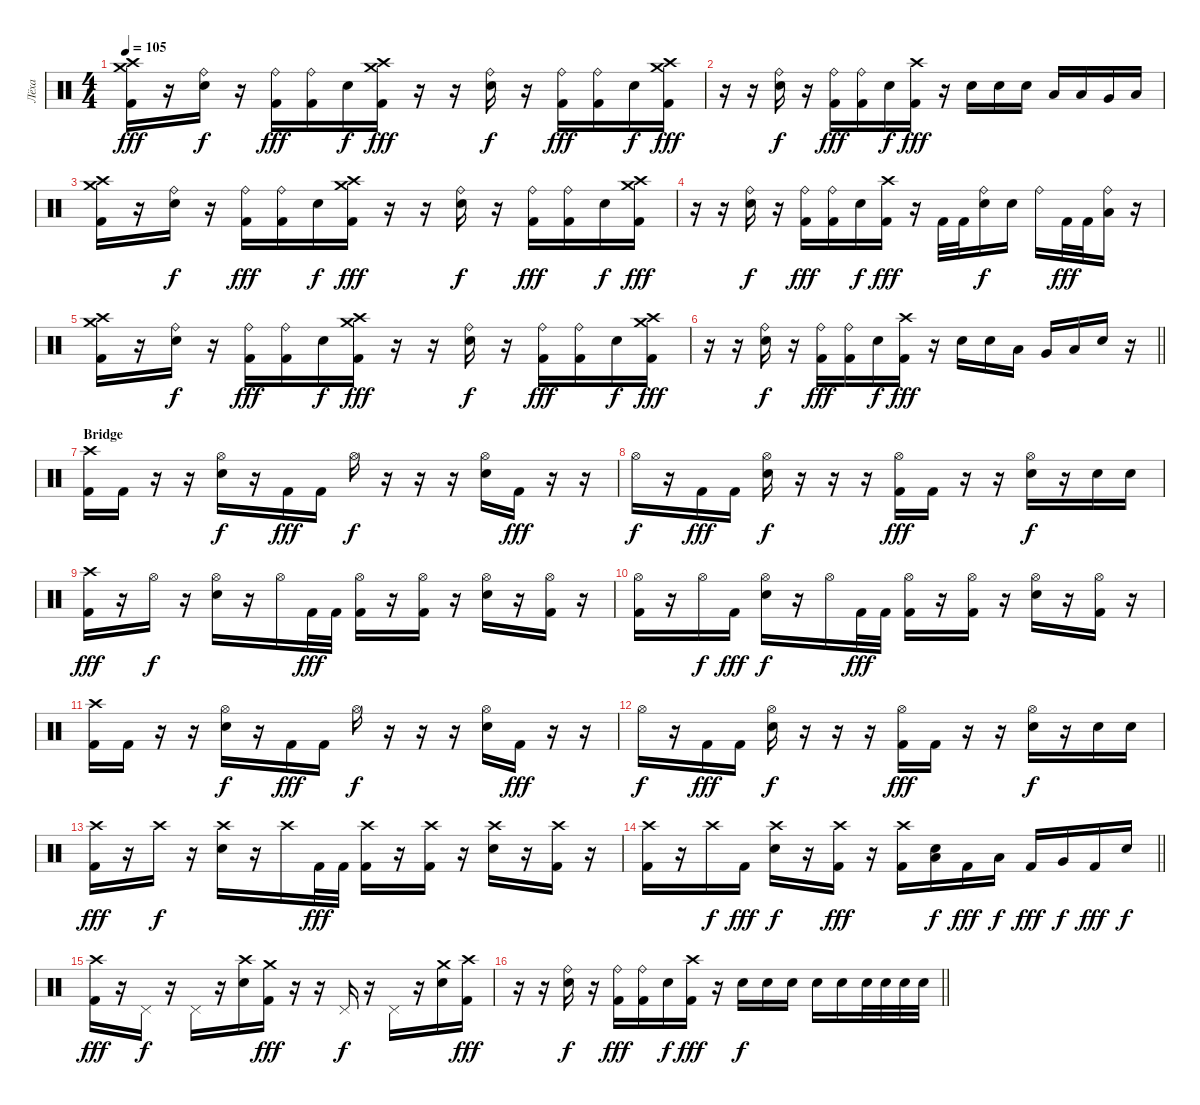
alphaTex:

\track ("Лёха" "Лёха") {solo instrument percussion}
\staff {score}
\articulation defaults
\ts (4 4)
\tempo 105
\clef neutral
\ks c
("Crash high (hit)" "Crash medium (hit)" "Kick (hit) 2").16{dy fff} r.16 ("Ride (bell)" "Electric Snare (hit)").16{dy f} r.16 ("Ride (bell)" "Kick (hit) 2").16{dy fff} ("Ride (bell)" "Kick (hit) 2").16 "Electric Snare (hit)".16{dy f} ("Crash high (hit)" "Crash medium (hit)" "Kick (hit) 2").16{dy fff} r.16 r.16 ("Ride (bell)" "Electric Snare (hit)").16{dy f} r.16 ("Ride (bell)" "Kick (hit) 2").16{dy fff} ("Ride (bell)" "Kick (hit) 2").16 "Electric Snare (hit)".16{dy f} ("Crash high (hit)" "Crash medium (hit)" "Kick (hit) 2").16{dy fff} |
r.16 r.16 ("Ride (bell)" "Electric Snare (hit)").16{dy f} r.16 ("Ride (bell)" "Kick (hit) 2").16{dy fff} ("Ride (bell)" "Kick (hit) 2").16 "Electric Snare (hit)".16{dy f} ("Crash high (hit)" "Kick (hit) 2").16{dy fff} r.16 "Electric Snare (hit)".16 "Electric Snare (hit)".16 "Electric Snare (hit)".16 "Low Tom (hit)".16 "Low Tom (hit)".16 "Very Low Tom (hit)".16 "Low Floor Tom (hit)".16 |
("Crash high (hit)" "Crash medium (hit)" "Kick (hit) 2").16 r.16 ("Ride (bell)" "Electric Snare (hit)").16{dy f} r.16 ("Ride (bell)" "Kick (hit) 2").16{dy fff} ("Ride (bell)" "Kick (hit) 2").16 "Electric Snare (hit)".16{dy f} ("Crash high (hit)" "Crash medium (hit)" "Kick (hit) 2").16{dy fff} r.16 r.16 ("Ride (bell)" "Electric Snare (hit)").16{dy f} r.16 ("Ride (bell)" "Kick (hit) 2").16{dy fff} ("Ride (bell)" "Kick (hit) 2").16 "Electric Snare (hit)".16{dy f} ("Crash high (hit)" "Crash medium (hit)" "Kick (hit) 2").16{dy fff} |
r.16 r.16 ("Ride (bell)" "Electric Snare (hit)").16{dy f} r.16 ("Ride (bell)" "Kick (hit) 2").16{dy fff} ("Ride (bell)" "Kick (hit) 2").16 "Electric Snare (hit)".16{dy f} ("Crash high (hit)" "Kick (hit) 2").16{dy fff} r.16 "Kick (hit) 2".32 "Kick (hit) 2".32 ("Ride (bell)" "Electric Snare (hit)").16{dy f} "Electric Snare (hit)".16 "Ride (bell)".16 "Kick (hit) 2".32{dy fff} "Kick (hit) 2".32 ("Ride (bell)" "Low Tom (hit)").16 r.16 |
("Crash high (hit)" "Crash medium (hit)" "Kick (hit) 2").16 r.16 ("Ride (bell)" "Electric Snare (hit)").16{dy f} r.16 ("Ride (bell)" "Kick (hit) 2").16{dy fff} ("Ride (bell)" "Kick (hit) 2").16 "Electric Snare (hit)".16{dy f} ("Crash high (hit)" "Crash medium (hit)" "Kick (hit) 2").16{dy fff} r.16 r.16 ("Ride (bell)" "Electric Snare (hit)").16{dy f} r.16 ("Ride (bell)" "Kick (hit) 2").16{dy fff} ("Ride (bell)" "Kick (hit) 2").16 "Electric Snare (hit)".16{dy f} ("Crash high (hit)" "Crash medium (hit)" "Kick (hit) 2").16{dy fff} |
\barLineRight lightlight
r.16 r.16 ("Ride (bell)" "Electric Snare (hit)").16{dy f} r.16 ("Ride (bell)" "Kick (hit) 2").16{dy fff} ("Ride (bell)" "Kick (hit) 2").16 "Electric Snare (hit)".16{dy f} ("Crash high (hit)" "Kick (hit) 2").16{dy fff} r.16 "Electric Snare (hit)".16 "Electric Snare (hit)".16 "Low Tom (hit)".16 "Very Low Tom (hit)".16 "Low Floor Tom (hit)".16 "Electric Snare (hit)".16 r.16 |
\section ("" "Bridge")
("Crash high (hit)" "Kick (hit) 2").16 "Kick (hit) 2".16 r.16 r.16 ("Hi-Hat (open)" "Electric Snare (hit)").16{dy f} r.16 "Kick (hit) 2".16{dy fff} "Kick (hit) 2".16 "Hi-Hat (open)".16{dy f} r.16 r.16 r.16 ("Hi-Hat (open)" "Electric Snare (hit)").16 "Kick (hit) 2".16{dy fff} r.16 r.16 |
"Hi-Hat (open)".16{dy f} r.16 "Kick (hit) 2".16{dy fff} "Kick (hit) 2".16 ("Hi-Hat (open)" "Electric Snare (hit)").16{dy f} r.16 r.16 r.16 ("Hi-Hat (open)" "Kick (hit) 2").16{dy fff} "Kick (hit) 2".16 r.16 r.16 ("Hi-Hat (open)" "Electric Snare (hit)").16{dy f} r.16 "Electric Snare (hit)".16 "Electric Snare (hit)".16 |
("Crash high (hit)" "Kick (hit) 2").16{dy fff} r.16 "Hi-Hat (open)".16{dy f} r.16 ("Hi-Hat (open)" "Electric Snare (hit)").16 r.16 "Hi-Hat (open)".16 "Kick (hit) 2".32{dy fff} "Kick (hit) 2".32 ("Hi-Hat (open)" "Kick (hit) 2").16 r.16 ("Hi-Hat (open)" "Kick (hit) 2").16 r.16 ("Hi-Hat (open)" "Electric Snare (hit)").16 r.16 ("Hi-Hat (open)" "Kick (hit) 2").16 r.16 |
("Hi-Hat (open)" "Kick (hit) 2").16 r.16 "Hi-Hat (open)".16{dy f} "Kick (hit) 2".16{dy fff} ("Hi-Hat (open)" "Electric Snare (hit)").16{dy f} r.16 "Hi-Hat (open)".16 "Kick (hit) 2".32{dy fff} "Kick (hit) 2".32 ("Hi-Hat (open)" "Kick (hit) 2").16 r.16 ("Hi-Hat (open)" "Kick (hit) 2").16 r.16 ("Hi-Hat (open)" "Electric Snare (hit)").16 r.16 ("Hi-Hat (open)" "Kick (hit) 2").16 r.16 |
("Crash high (hit)" "Kick (hit) 2").16 "Kick (hit) 2".16 r.16 r.16 ("Hi-Hat (open)" "Electric Snare (hit)").16{dy f} r.16 "Kick (hit) 2".16{dy fff} "Kick (hit) 2".16 "Hi-Hat (open)".16{dy f} r.16 r.16 r.16 ("Hi-Hat (open)" "Electric Snare (hit)").16 "Kick (hit) 2".16{dy fff} r.16 r.16 |
"Hi-Hat (open)".16{dy f} r.16 "Kick (hit) 2".16{dy fff} "Kick (hit) 2".16 ("Hi-Hat (open)" "Electric Snare (hit)").16{dy f} r.16 r.16 r.16 ("Hi-Hat (open)" "Kick (hit) 2").16{dy fff} "Kick (hit) 2".16 r.16 r.16 ("Hi-Hat (open)" "Electric Snare (hit)").16{dy f} r.16 "Electric Snare (hit)".16 "Electric Snare (hit)".16 |
("Crash high (hit)" "Kick (hit) 2").16{dy fff} r.16 "Crash high (hit)".16{dy f} r.16 ("Crash high (hit)" "Electric Snare (hit)").16 r.16 "Crash high (hit)".16 "Kick (hit) 2".32{dy fff} "Kick (hit) 2".32 ("Crash high (hit)" "Kick (hit) 2").16 r.16 ("Crash high (hit)" "Kick (hit) 2").16 r.16 ("Crash high (hit)" "Electric Snare (hit)").16 r.16 ("Crash high (hit)" "Kick (hit) 2").16 r.16 |
\barLineRight lightlight
("Crash high (hit)" "Kick (hit) 2").16 r.16 "Crash high (hit)".16{dy f} "Kick (hit) 2".16{dy fff} ("Crash high (hit)" "Electric Snare (hit)").16{dy f} r.16 ("Crash high (hit)" "Kick (hit) 2").16{dy fff} r.16 ("Crash high (hit)" "Kick (hit) 2").16 ("Low Floor Tom (hit)" "Electric Snare (hit)").16{dy f} "Kick (hit) 2".16{dy fff} "Low Tom (hit)".16{dy f} "Kick (hit) 2".16{dy fff} "Very Low Tom (hit)".16{dy f} "Kick (hit) 2".16{dy fff} "Electric Snare (hit)".16{dy f} |
\section ("" "")
("Crash high (hit)" "Kick (hit) 2").16{dy fff} r.16 "Pedal Hi-Hat (hit)".16{dy f} r.16 "Pedal Hi-Hat (hit)".16 r.16 ("Crash high (hit)" "Electric Snare (hit)").16 ("Crash medium (hit)" "Kick (hit) 2").16{dy fff} r.16 r.16 "Pedal Hi-Hat (hit)".16{dy f} r.16 "Pedal Hi-Hat (hit)".16 r.16 ("Crash medium (hit)" "Electric Snare (hit)").16 ("Crash high (hit)" "Kick (hit) 2").16{dy fff} |
\barLineRight lightlight
r.16 r.16 ("Ride (bell)" "Electric Snare (hit)").16{dy f} r.16 ("Ride (bell)" "Kick (hit) 2").16{dy fff} ("Ride (bell)" "Kick (hit) 2").16 "Electric Snare (hit)".16{dy f} ("Crash high (hit)" "Kick (hit) 2").16{dy fff} r.16 "Electric Snare (hit)".16{dy f} "Electric Snare (hit)".16 "Electric Snare (hit)".16 "Electric Snare (hit)".16 "Electric Snare (hit)".16 "Electric Snare (hit)".32 "Electric Snare (hit)".32 "Electric Snare (hit)".32 "Electric Snare (hit)".32
